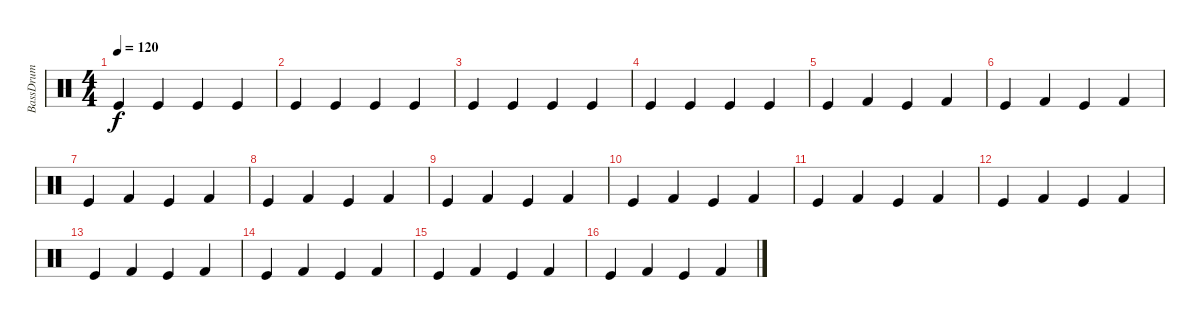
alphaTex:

\track ("BassDrum" "BassDrum") {instrument percussion}
\staff {score}
\articulation defaults
\ts (4 4)
\tempo 120
\clef neutral
\ks c "Kick (hit)".4{dy f} "Kick (hit)".4 "Kick (hit)".4 "Kick (hit)".4
|
"Kick (hit)".4 "Kick (hit)".4 "Kick (hit)".4 "Kick (hit)".4 |
"Kick (hit)".4 "Kick (hit)".4 "Kick (hit)".4 "Kick (hit)".4 |
"Kick (hit)".4 "Kick (hit)".4 "Kick (hit)".4 "Kick (hit)".4 |
"Kick (hit)".4 "Kick (hit) 2".4 "Kick (hit)".4 "Kick (hit) 2".4 |
"Kick (hit)".4 "Kick (hit) 2".4 "Kick (hit)".4 "Kick (hit) 2".4 |
"Kick (hit)".4 "Kick (hit) 2".4 "Kick (hit)".4 "Kick (hit) 2".4 |
"Kick (hit)".4 "Kick (hit) 2".4 "Kick (hit)".4 "Kick (hit) 2".4 |
"Kick (hit)".4 "Kick (hit) 2".4 "Kick (hit)".4 "Kick (hit) 2".4 |
"Kick (hit)".4 "Kick (hit) 2".4 "Kick (hit)".4 "Kick (hit) 2".4 |
"Kick (hit)".4 "Kick (hit) 2".4 "Kick (hit)".4 "Kick (hit) 2".4 |
"Kick (hit)".4 "Kick (hit) 2".4 "Kick (hit)".4 "Kick (hit) 2".4 |
"Kick (hit)".4 "Kick (hit) 2".4 "Kick (hit)".4 "Kick (hit) 2".4 |
"Kick (hit)".4 "Kick (hit) 2".4 "Kick (hit)".4 "Kick (hit) 2".4 |
"Kick (hit)".4 "Kick (hit) 2".4 "Kick (hit)".4 "Kick (hit) 2".4 |
"Kick (hit)".4 "Kick (hit) 2".4 "Kick (hit)".4 "Kick (hit) 2".4
